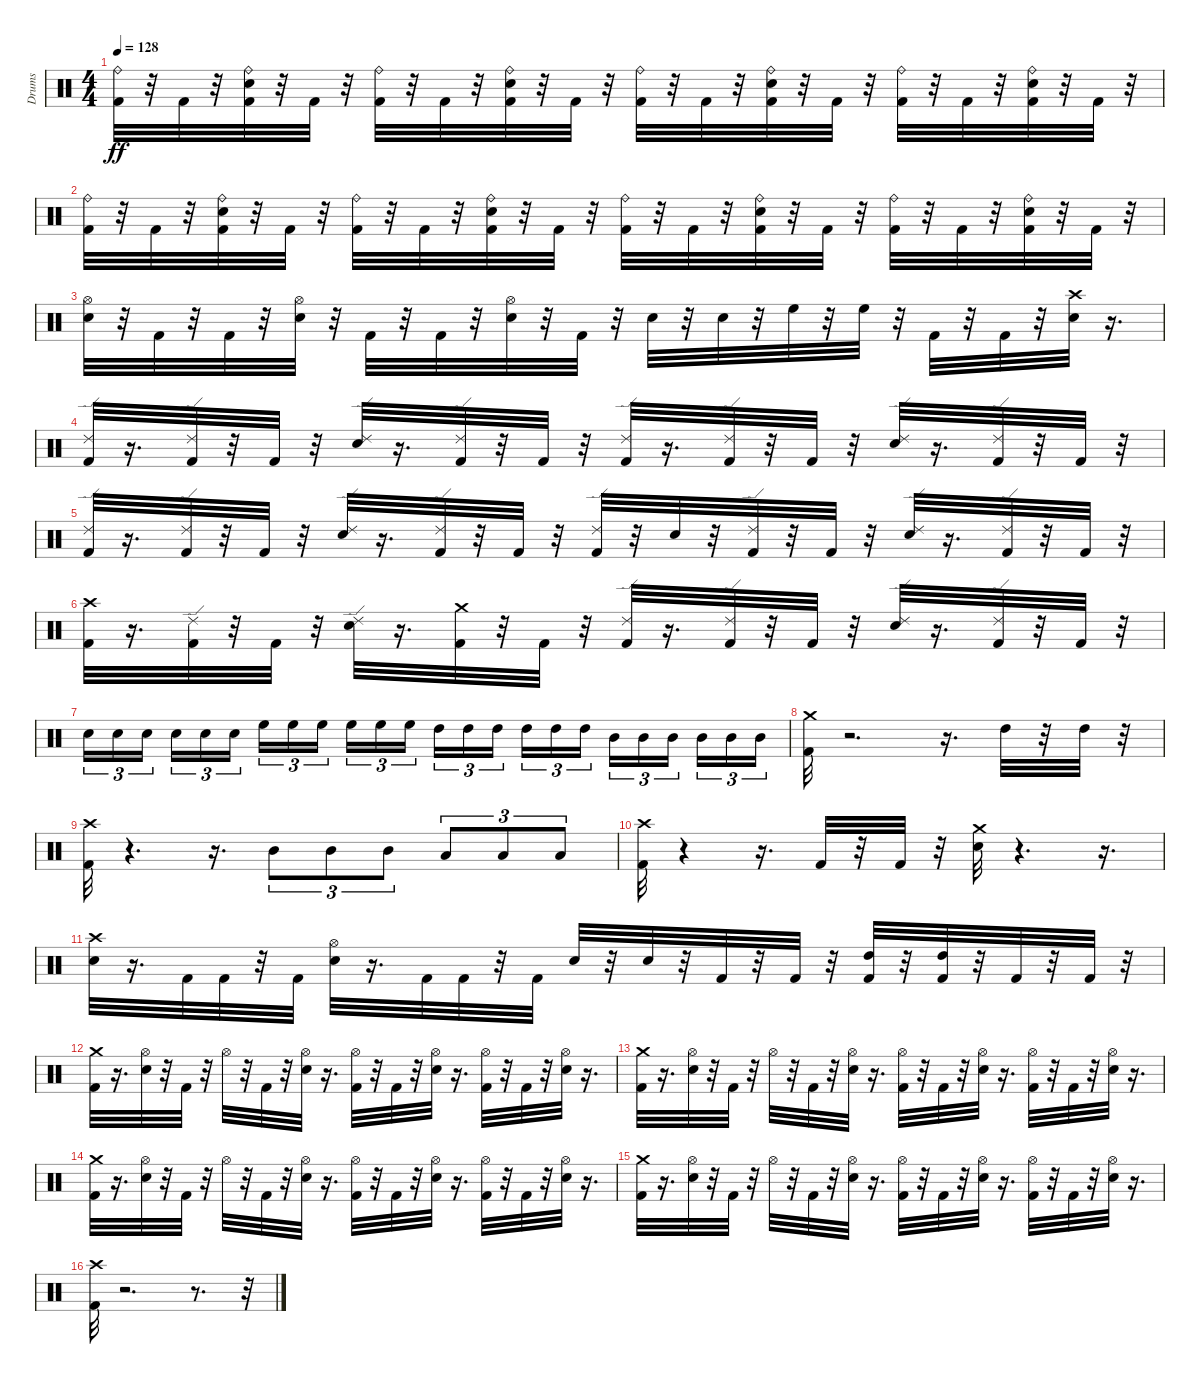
\track ("Drums" "Drums") {instrument percussion}
\staff {score}
\articulation defaults
\ts (4 4)
\tempo 128
\clef neutral
\ks c
("Ride (bell)" "Kick (hit) 2").32{dy ff} r.32 "Kick (hit) 2".32 r.32 ("Kick (hit) 2" "Snare (hit) 2" "Ride (bell)").32 r.32 "Kick (hit) 2".32 r.32 ("Kick (hit) 2" "Ride (bell)").32 r.32 "Kick (hit) 2".32 r.32 ("Snare (hit) 2" "Kick (hit) 2" "Ride (bell)").32 r.32 "Kick (hit) 2".32 r.32 ("Kick (hit) 2" "Ride (bell)").32 r.32 "Kick (hit) 2".32 r.32 ("Ride (bell)" "Kick (hit) 2" "Snare (hit) 2").32 r.32 "Kick (hit) 2".32 r.32 ("Ride (bell)" "Kick (hit) 2").32 r.32 "Kick (hit) 2".32 r.32 ("Kick (hit) 2" "Snare (hit) 2" "Ride (bell)").32 r.32 "Kick (hit) 2".32 r.32 |
("Kick (hit) 2" "Ride (bell)").32 r.32 "Kick (hit) 2".32 r.32 ("Snare (hit) 2" "Kick (hit) 2" "Ride (bell)").32 r.32 "Kick (hit) 2".32 r.32 ("Kick (hit) 2" "Ride (bell)").32 r.32 "Kick (hit) 2".32 r.32 ("Ride (bell)" "Kick (hit) 2" "Snare (hit) 2").32 r.32 "Kick (hit) 2".32 r.32 ("Ride (bell)" "Kick (hit) 2").32 r.32 "Kick (hit) 2".32 r.32 ("Kick (hit) 2" "Snare (hit) 2" "Ride (bell)").32 r.32 "Kick (hit) 2".32 r.32 ("Kick (hit) 2" "Ride (bell)").32 r.32 "Kick (hit) 2".32 r.32 ("Snare (hit) 2" "Kick (hit) 2" "Ride (bell)").32 r.32 "Kick (hit) 2".32 r.32 |
("Hi-Hat (open)" "Snare (hit) 2").32 r.32 "Kick (hit) 2".32 r.32 "Kick (hit) 2".32 r.32 ("Hi-Hat (open)" "Snare (hit) 2").32 r.32 "Kick (hit) 2".32 r.32 "Kick (hit) 2".32 r.32 ("Hi-Hat (open)" "Snare (hit) 2").32 r.32 "Kick (hit) 2".32 r.32 "Snare (hit) 2".32 r.32 "Snare (hit) 2".32 r.32 "High Floor Tom (hit)".32 r.32 "High Floor Tom (hit)".32 r.32 "Kick (hit) 2".32 r.32 "Kick (hit) 2".32 r.32 ("Crash high (hit)" "Snare (hit) 2").32 r.16{d} |
("Ride (edge) 2" "Kick (hit) 2").32 r.16{d} ("Ride (edge) 2" "Kick (hit) 2").32 r.32 "Kick (hit) 2".32 r.32 ("Ride (edge) 2" "Snare (hit) 2").32 r.16{d} ("Kick (hit) 2" "Ride (edge) 2").32 r.32 "Kick (hit) 2".32 r.32 ("Kick (hit) 2" "Ride (edge) 2").32 r.16{d} ("Kick (hit) 2" "Ride (edge) 2").32 r.32 "Kick (hit) 2".32 r.32 ("Snare (hit) 2" "Ride (edge) 2").32 r.16{d} ("Kick (hit) 2" "Ride (edge) 2").32 r.32 "Kick (hit) 2".32 r.32 |
("Ride (edge) 2" "Kick (hit) 2").32 r.16{d} ("Ride (edge) 2" "Kick (hit) 2").32 r.32 "Kick (hit) 2".32 r.32 ("Ride (edge) 2" "Snare (hit) 2").32 r.16{d} ("Kick (hit) 2" "Ride (edge) 2").32 r.32 "Kick (hit) 2".32 r.32 ("Kick (hit) 2" "Ride (edge) 2").32 r.32 "Snare (hit) 2".32 r.32 ("Kick (hit) 2" "Ride (edge) 2").32 r.32 "Kick (hit) 2".32 r.32 ("Snare (hit) 2" "Ride (edge) 2").32 r.16{d} ("Kick (hit) 2" "Ride (edge) 2").32 r.32 "Kick (hit) 2".32 r.32 |
("Crash high (hit)" "Kick (hit) 2").32 r.16{d} ("Ride (edge) 2" "Kick (hit) 2").32 r.32 "Kick (hit) 2".32 r.32 ("Ride (edge) 2" "Snare (hit) 2").32 r.16{d} ("Kick (hit) 2" "Crash medium (hit)").32 r.32 "Kick (hit) 2".32 r.32 ("Kick (hit) 2" "Ride (edge) 2").32 r.16{d} ("Kick (hit) 2" "Ride (edge) 2").32 r.32 "Kick (hit) 2".32 r.32 ("Snare (hit) 2" "Ride (edge) 2").32 r.16{d} ("Kick (hit) 2" "Ride (edge) 2").32 r.32 "Kick (hit) 2".32 r.32 |
"Snare (hit) 2".16{tu (3 2)} "Snare (hit) 2".16{tu (3 2)} "Snare (hit) 2".16{tu (3 2)} "Snare (hit) 2".16{tu (3 2)} "Snare (hit) 2".16{tu (3 2)} "Snare (hit) 2".16{tu (3 2)} "High Floor Tom (hit)".16{tu (3 2)} "High Floor Tom (hit)".16{tu (3 2)} "High Floor Tom (hit)".16{tu (3 2)} "High Floor Tom (hit)".16{tu (3 2)} "High Floor Tom (hit)".16{tu (3 2)} "High Floor Tom (hit)".16{tu (3 2)} "High Tom (hit)".16{tu (3 2)} "High Tom (hit)".16{tu (3 2)} "High Tom (hit)".16{tu (3 2)} "High Tom (hit)".16{tu (3 2)} "High Tom (hit)".16{tu (3 2)} "High Tom (hit)".16{tu (3 2)} "Mid Tom (hit)".16{tu (3 2)} "Mid Tom (hit)".16{tu (3 2)} "Mid Tom (hit)".16{tu (3 2)} "Mid Tom (hit)".16{tu (3 2)} "Mid Tom (hit)".16{tu (3 2)} "Mid Tom (hit)".16{tu (3 2)} |
("Kick (hit) 2" "Crash medium (hit)").32 r.2{d} r.16{d} "High Tom (hit)".32 r.32 "High Tom (hit)".32 r.32 |
("Crash high (hit)" "Kick (hit) 2").32 r.4{d} r.16{d} "Mid Tom (hit)".8{tu (3 2)} "Mid Tom (hit)".8{tu (3 2)} "Mid Tom (hit)".8{tu (3 2)} "Low Tom (hit)".8{tu (3 2)} "Low Tom (hit)".8{tu (3 2)} "Low Tom (hit)".8{tu (3 2)} |
("Crash high (hit)" "Kick (hit) 2").32 r.4 r.16{d} "Kick (hit) 2".32 r.32 "Kick (hit) 2".32 r.32 ("Snare (hit) 2" "Crash medium (hit)").32 r.4{d} r.16{d} |
("Crash high (hit)" "Snare (hit) 2").32 r.16{d} "Kick (hit) 2".32 "Kick (hit) 2".32 r.32 "Kick (hit) 2".32 ("Hi-Hat (open)" "Snare (hit) 2").32 r.16{d} "Kick (hit) 2".32 "Kick (hit) 2".32 r.32 "Kick (hit) 2".32 "Snare (hit) 2".32 r.32 "Snare (hit) 2".32 r.32 "Kick (hit) 2".32 r.32 "Kick (hit) 2".32 r.32 ("Kick (hit) 2" "High Tom (hit)").32 r.32 ("Kick (hit) 2" "High Tom (hit)").32 r.32 "Kick (hit) 2".32 r.32 "Kick (hit) 2".32 r.32 |
("Crash medium (hit)" "Kick (hit) 2").32 r.16{d} ("Snare (hit) 2" "Hi-Hat (open)").32 r.32 "Kick (hit) 2".32 r.32 "Hi-Hat (open)".32 r.32 "Kick (hit) 2".32 r.32 ("Snare (hit) 2" "Hi-Hat (open)").32 r.16{d} ("Kick (hit) 2" "Hi-Hat (open)").32 r.32 "Kick (hit) 2".32 r.32 ("Snare (hit) 2" "Hi-Hat (open)").32 r.16{d} ("Kick (hit) 2" "Hi-Hat (open)").32 r.32 "Kick (hit) 2".32 r.32 ("Snare (hit) 2" "Hi-Hat (open)").32 r.16{d} |
("Crash medium (hit)" "Kick (hit) 2").32 r.16{d} ("Snare (hit) 2" "Hi-Hat (open)").32 r.32 "Kick (hit) 2".32 r.32 "Hi-Hat (open)".32 r.32 "Kick (hit) 2".32 r.32 ("Snare (hit) 2" "Hi-Hat (open)").32 r.16{d} ("Kick (hit) 2" "Hi-Hat (open)").32 r.32 "Kick (hit) 2".32 r.32 ("Snare (hit) 2" "Hi-Hat (open)").32 r.16{d} ("Kick (hit) 2" "Hi-Hat (open)").32 r.32 "Kick (hit) 2".32 r.32 ("Snare (hit) 2" "Hi-Hat (open)").32 r.16{d} |
("Crash medium (hit)" "Kick (hit) 2").32 r.16{d} ("Snare (hit) 2" "Hi-Hat (open)").32 r.32 "Kick (hit) 2".32 r.32 "Hi-Hat (open)".32 r.32 "Kick (hit) 2".32 r.32 ("Snare (hit) 2" "Hi-Hat (open)").32 r.16{d} ("Kick (hit) 2" "Hi-Hat (open)").32 r.32 "Kick (hit) 2".32 r.32 ("Snare (hit) 2" "Hi-Hat (open)").32 r.16{d} ("Kick (hit) 2" "Hi-Hat (open)").32 r.32 "Kick (hit) 2".32 r.32 ("Snare (hit) 2" "Hi-Hat (open)").32 r.16{d} |
("Crash medium (hit)" "Kick (hit) 2").32 r.16{d} ("Snare (hit) 2" "Hi-Hat (open)").32 r.32 "Kick (hit) 2".32 r.32 "Hi-Hat (open)".32 r.32 "Kick (hit) 2".32 r.32 ("Snare (hit) 2" "Hi-Hat (open)").32 r.16{d} ("Kick (hit) 2" "Hi-Hat (open)").32 r.32 "Kick (hit) 2".32 r.32 ("Snare (hit) 2" "Hi-Hat (open)").32 r.16{d} ("Kick (hit) 2" "Hi-Hat (open)").32 r.32 "Kick (hit) 2".32 r.32 ("Snare (hit) 2" "Hi-Hat (open)").32 r.16{d} |
("Kick (hit) 2" "Crash high (hit)").32 r.2{d} r.8{d} r.32
